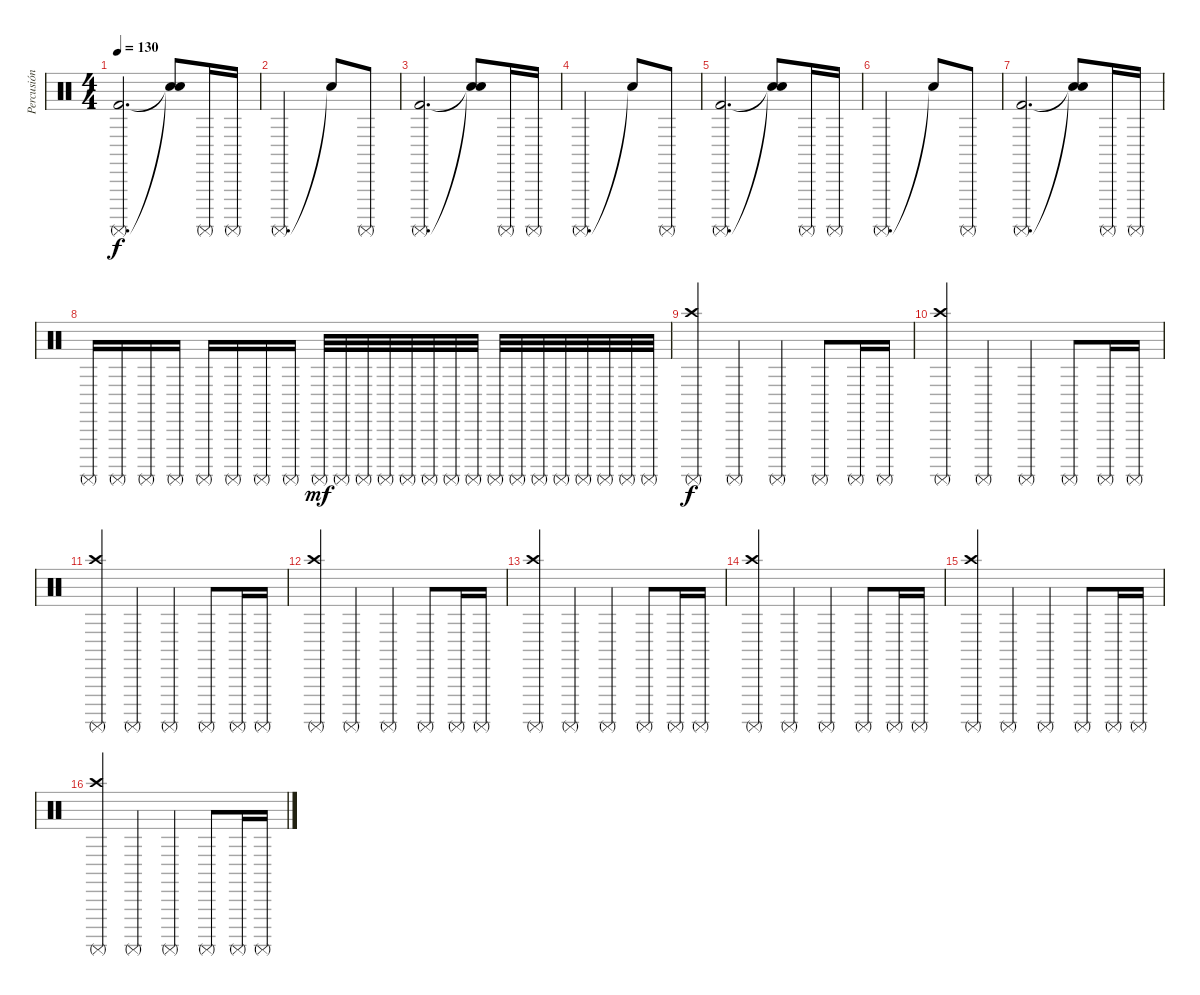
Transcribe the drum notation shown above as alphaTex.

\track ("Percusión" "Percusión") {instrument percussion}
\staff {score}
\articulation defaults
\ts (4 4)
\tempo 130
\clef neutral
\ks c
("Kick (hit) 2" "Surdo (mute)").2{d dy f} ("Snare (hit)"{t} "Snare (hit)"{t}).8 "Surdo (mute)".16 "Surdo (mute)".16 |
"Surdo (mute)".2{d} "Snare (hit)"{t}.8 "Surdo (mute)".8 |
("Kick (hit) 2" "Surdo (mute)").2{d} ("Snare (hit)"{t} "Snare (hit)"{t}).8 "Surdo (mute)".16 "Surdo (mute)".16 |
"Surdo (mute)".2{d} "Snare (hit)"{t}.8 "Surdo (mute)".8 |
("Kick (hit) 2" "Surdo (mute)").2{d} ("Snare (hit)"{t} "Snare (hit)"{t}).8 "Surdo (mute)".16 "Surdo (mute)".16 |
"Surdo (mute)".2{d} "Snare (hit)"{t}.8 "Surdo (mute)".8 |
("Kick (hit) 2" "Surdo (mute)").2{d} ("Snare (hit)"{t} "Snare (hit)"{t}).8 "Surdo (mute)".16 "Surdo (mute)".16 |
"Surdo (mute)".16 "Surdo (mute)".16 "Surdo (mute)".16 "Surdo (mute)".16 "Surdo (mute)".16 "Surdo (mute)".16 "Surdo (mute)".16 "Surdo (mute)".16 "Surdo (mute)".32{dy mf} "Surdo (mute)".32 "Surdo (mute)".32 "Surdo (mute)".32 "Surdo (mute)".32 "Surdo (mute)".32 "Surdo (mute)".32 "Surdo (mute)".32 "Surdo (mute)".32 "Surdo (mute)".32 "Surdo (mute)".32 "Surdo (mute)".32 "Surdo (mute)".32 "Surdo (mute)".32 "Surdo (mute)".32 "Surdo (mute)".32 |
("Crash high (hit)" "Surdo (mute)").4{dy f} "Surdo (mute)".4 "Surdo (mute)".4 "Surdo (mute)".8 "Surdo (mute)".16 "Surdo (mute)".16 |
("Crash high (hit)" "Surdo (mute)").4 "Surdo (mute)".4 "Surdo (mute)".4 "Surdo (mute)".8 "Surdo (mute)".16 "Surdo (mute)".16 |
("Crash high (hit)" "Surdo (mute)").4 "Surdo (mute)".4 "Surdo (mute)".4 "Surdo (mute)".8 "Surdo (mute)".16 "Surdo (mute)".16 |
("Crash high (hit)" "Surdo (mute)").4 "Surdo (mute)".4 "Surdo (mute)".4 "Surdo (mute)".8 "Surdo (mute)".16 "Surdo (mute)".16 |
("Crash high (hit)" "Surdo (mute)").4 "Surdo (mute)".4 "Surdo (mute)".4 "Surdo (mute)".8 "Surdo (mute)".16 "Surdo (mute)".16 |
("Crash high (hit)" "Surdo (mute)").4 "Surdo (mute)".4 "Surdo (mute)".4 "Surdo (mute)".8 "Surdo (mute)".16 "Surdo (mute)".16 |
("Crash high (hit)" "Surdo (mute)").4 "Surdo (mute)".4 "Surdo (mute)".4 "Surdo (mute)".8 "Surdo (mute)".16 "Surdo (mute)".16 |
("Crash high (hit)" "Surdo (mute)").4 "Surdo (mute)".4 "Surdo (mute)".4 "Surdo (mute)".8 "Surdo (mute)".16 "Surdo (mute)".16
